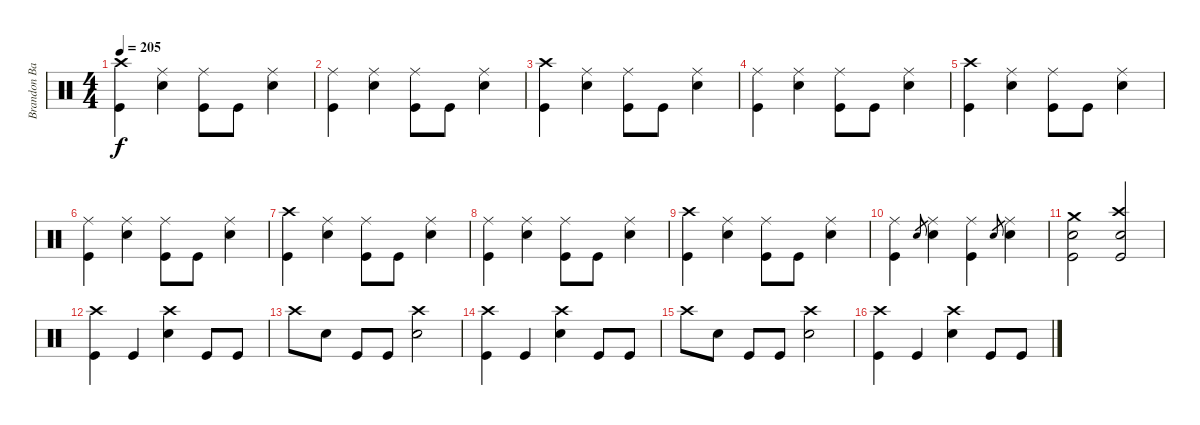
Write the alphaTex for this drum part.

\track ("Brandon Barnes" "Brandon Ba") {instrument percussion}
\staff {score}
\articulation defaults
\ts (4 4)
\tempo 205
\clef neutral
\ks c
("Kick (hit)" "Crash high (hit)").4{dy f} ("Electric Snare (hit)" "Ride (middle)").4 ("Kick (hit)" "Ride (middle)").8 "Kick (hit)".8 ("Electric Snare (hit)" "Ride (middle)").4 |
("Kick (hit)" "Ride (middle)").4 ("Electric Snare (hit)" "Ride (middle)").4 ("Kick (hit)" "Ride (middle)").8 "Kick (hit)".8 ("Electric Snare (hit)" "Ride (middle)").4 |
("Kick (hit)" "Crash high (hit)").4 ("Electric Snare (hit)" "Ride (middle)").4 ("Kick (hit)" "Ride (middle)").8 "Kick (hit)".8 ("Electric Snare (hit)" "Ride (middle)").4 |
("Kick (hit)" "Ride (middle)").4 ("Electric Snare (hit)" "Ride (middle)").4 ("Kick (hit)" "Ride (middle)").8 "Kick (hit)".8 ("Electric Snare (hit)" "Ride (middle)").4 |
("Kick (hit)" "Crash high (hit)").4 ("Electric Snare (hit)" "Ride (middle)").4 ("Kick (hit)" "Ride (middle)").8 "Kick (hit)".8 ("Electric Snare (hit)" "Ride (middle)").4 |
("Kick (hit)" "Ride (middle)").4 ("Electric Snare (hit)" "Ride (middle)").4 ("Kick (hit)" "Ride (middle)").8 "Kick (hit)".8 ("Electric Snare (hit)" "Ride (middle)").4 |
("Kick (hit)" "Crash high (hit)").4 ("Electric Snare (hit)" "Ride (middle)").4 ("Kick (hit)" "Ride (middle)").8 "Kick (hit)".8 ("Electric Snare (hit)" "Ride (middle)").4 |
("Kick (hit)" "Ride (middle)").4 ("Electric Snare (hit)" "Ride (middle)").4 ("Kick (hit)" "Ride (middle)").8 "Kick (hit)".8 ("Electric Snare (hit)" "Ride (middle)").4 |
("Kick (hit)" "Crash high (hit)").4 ("Electric Snare (hit)" "Ride (middle)").4 ("Kick (hit)" "Ride (middle)").8 "Kick (hit)".8 ("Electric Snare (hit)" "Ride (middle)").4 |
("Kick (hit)" "Ride (middle)").4 "Electric Snare (hit)".8{gr} ("Electric Snare (hit)" "Ride (middle)").4 ("Kick (hit)" "Ride (middle)").4 "Electric Snare (hit)".8{gr} ("Electric Snare (hit)" "Ride (middle)").4 |
("Kick (hit)" "Electric Snare (hit)" "Crash medium (hit)").2 ("Kick (hit)" "Electric Snare (hit)" "Crash high (hit)").2 |
("Kick (hit)" "Crash high (hit)").4 "Kick (hit)".4 ("Electric Snare (hit)" "Crash high (hit)").4 "Kick (hit)".8 "Kick (hit)".8 |
"Crash high (hit)".8 "Electric Snare (hit)".8 "Kick (hit)".8 "Kick (hit)".8 ("Electric Snare (hit)" "Crash high (hit)").2 |
("Kick (hit)" "Crash high (hit)").4 "Kick (hit)".4 ("Electric Snare (hit)" "Crash high (hit)").4 "Kick (hit)".8 "Kick (hit)".8 |
"Crash high (hit)".8 "Electric Snare (hit)".8 "Kick (hit)".8 "Kick (hit)".8 ("Electric Snare (hit)" "Crash high (hit)").2 |
("Kick (hit)" "Crash high (hit)").4 "Kick (hit)".4 ("Electric Snare (hit)" "Crash high (hit)").4 "Kick (hit)".8 "Kick (hit)".8
